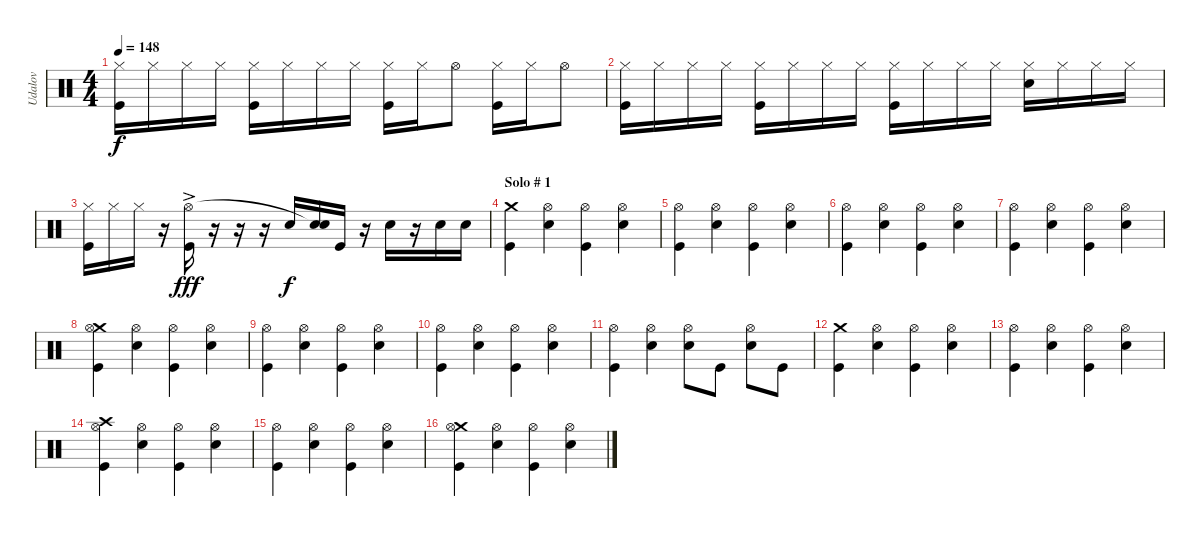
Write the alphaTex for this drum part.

\track ("Udalov" "Udalov") {instrument percussion}
\staff {score}
\articulation defaults
\ts (4 4)
\tempo 148
\clef neutral
\ks c
("Kick (hit)" "Hi-Hat (closed)").16{dy f} "Hi-Hat (closed)".16 "Hi-Hat (closed)".16 "Hi-Hat (closed)".16 ("Kick (hit)" "Hi-Hat (closed)").16 "Hi-Hat (closed)".16 "Hi-Hat (closed)".16 "Hi-Hat (closed)".16 ("Kick (hit)" "Hi-Hat (closed)").16 "Hi-Hat (closed)".16 "Hi-Hat (open)".8 ("Kick (hit)" "Hi-Hat (closed)").16 "Hi-Hat (closed)".16 "Hi-Hat (open)".8 |
("Kick (hit)" "Hi-Hat (closed)").16 "Hi-Hat (closed)".16 "Hi-Hat (closed)".16 "Hi-Hat (closed)".16 ("Kick (hit)" "Hi-Hat (closed)").16 "Hi-Hat (closed)".16 "Hi-Hat (closed)".16 "Hi-Hat (closed)".16 ("Kick (hit)" "Hi-Hat (closed)").16 "Hi-Hat (closed)".16 "Hi-Hat (closed)".16 "Hi-Hat (closed)".16 ("Electric Snare (hit)" "Hi-Hat (closed)").16 "Hi-Hat (closed)".16 "Hi-Hat (closed)".16 "Hi-Hat (closed)".16 |
("Kick (hit)" "Hi-Hat (closed)").16 "Hi-Hat (closed)".16 "Hi-Hat (closed)".16 r.16 ("Kick (hit)"{ac} "Hi-Hat (open)"{ac}).16{dy fff} r.16 r.16 r.16 "Electric Snare (hit)".16{dy f} ("Electric Snare (hit)" "Snare (hit)"{t}).16 "Kick (hit)".16 r.16 "Electric Snare (hit)".16 r.16 "Electric Snare (hit)".16 "Electric Snare (hit)".16 |
\section ("" "Solo # 1")
("Kick (hit)" "Crash medium (hit)").4 ("Electric Snare (hit)" "Hi-Hat (open)").4 ("Kick (hit)" "Hi-Hat (open)").4 ("Electric Snare (hit)" "Hi-Hat (open)").4 |
("Kick (hit)" "Hi-Hat (open)").4 ("Electric Snare (hit)" "Hi-Hat (open)").4 ("Kick (hit)" "Hi-Hat (open)").4 ("Electric Snare (hit)" "Hi-Hat (open)").4 |
("Kick (hit)" "Hi-Hat (open)").4 ("Electric Snare (hit)" "Hi-Hat (open)").4 ("Kick (hit)" "Hi-Hat (open)").4 ("Electric Snare (hit)" "Hi-Hat (open)").4 |
("Kick (hit)" "Hi-Hat (open)").4 ("Electric Snare (hit)" "Hi-Hat (open)").4 ("Kick (hit)" "Hi-Hat (open)").4 ("Electric Snare (hit)" "Hi-Hat (open)").4 |
("Kick (hit)" "Crash medium (hit)" "Hi-Hat (open)").4 ("Electric Snare (hit)" "Hi-Hat (open)").4 ("Kick (hit)" "Hi-Hat (open)").4 ("Electric Snare (hit)" "Hi-Hat (open)").4 |
("Kick (hit)" "Hi-Hat (open)").4 ("Electric Snare (hit)" "Hi-Hat (open)").4 ("Kick (hit)" "Hi-Hat (open)").4 ("Electric Snare (hit)" "Hi-Hat (open)").4 |
("Kick (hit)" "Hi-Hat (open)").4 ("Electric Snare (hit)" "Hi-Hat (open)").4 ("Kick (hit)" "Hi-Hat (open)").4 ("Electric Snare (hit)" "Hi-Hat (open)").4 |
("Kick (hit)" "Hi-Hat (open)").4 ("Electric Snare (hit)" "Hi-Hat (open)").4 ("Electric Snare (hit)" "Hi-Hat (open)").8 "Kick (hit)".8 ("Electric Snare (hit)" "Hi-Hat (open)").8 "Kick (hit)".8 |
("Kick (hit)" "Crash medium (hit)").4 ("Electric Snare (hit)" "Hi-Hat (open)").4 ("Kick (hit)" "Hi-Hat (open)").4 ("Electric Snare (hit)" "Hi-Hat (open)").4 |
("Kick (hit)" "Hi-Hat (open)").4 ("Electric Snare (hit)" "Hi-Hat (open)").4 ("Kick (hit)" "Hi-Hat (open)").4 ("Electric Snare (hit)" "Hi-Hat (open)").4 |
("Kick (hit)" "Crash high (hit)" "Hi-Hat (open)").4 ("Electric Snare (hit)" "Hi-Hat (open)").4 ("Kick (hit)" "Hi-Hat (open)").4 ("Electric Snare (hit)" "Hi-Hat (open)").4 |
("Kick (hit)" "Hi-Hat (open)").4 ("Electric Snare (hit)" "Hi-Hat (open)").4 ("Kick (hit)" "Hi-Hat (open)").4 ("Electric Snare (hit)" "Hi-Hat (open)").4 |
("Kick (hit)" "Crash medium (hit)" "Hi-Hat (open)").4 ("Electric Snare (hit)" "Hi-Hat (open)").4 ("Kick (hit)" "Hi-Hat (open)").4 ("Electric Snare (hit)" "Hi-Hat (open)").4
